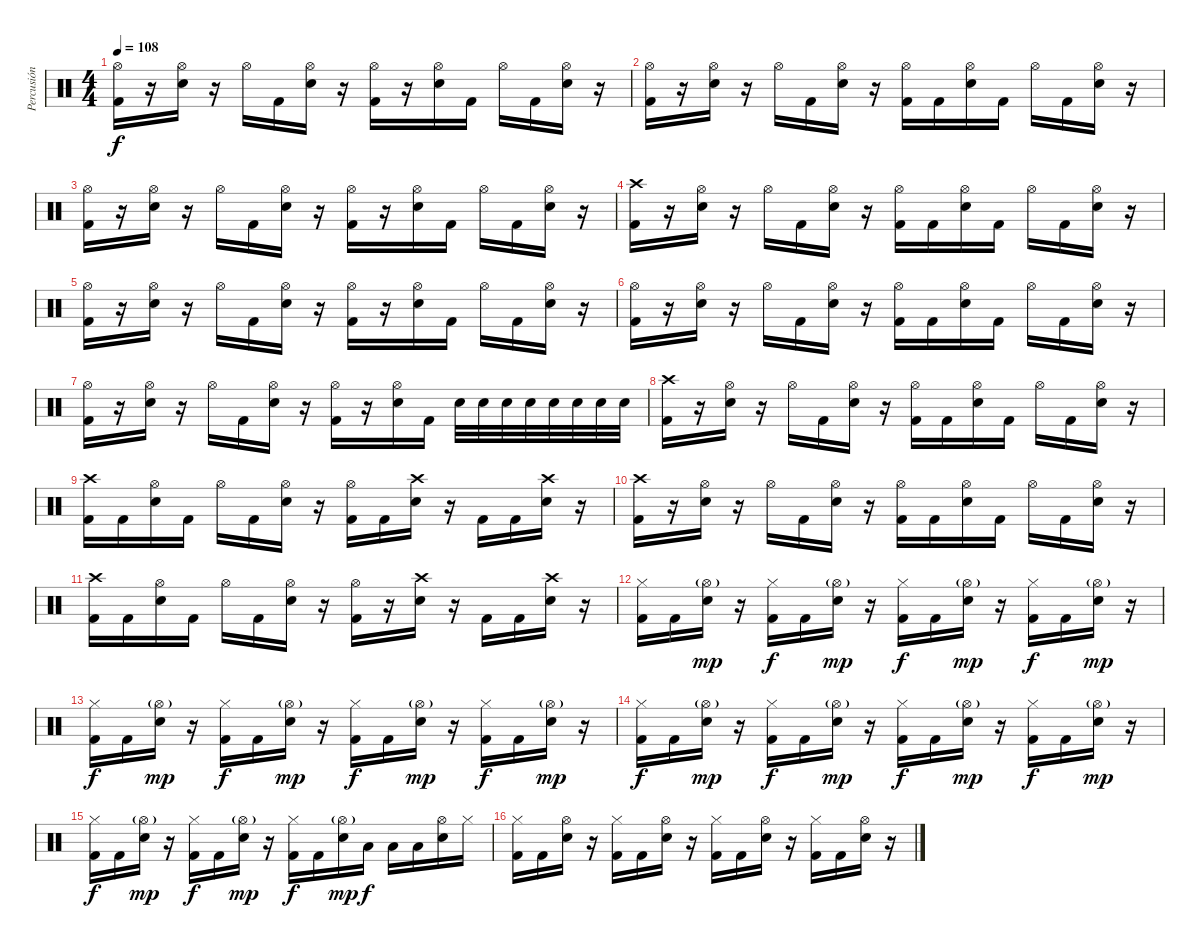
\track ("Percusión" "Percusión") {instrument percussion}
\staff {score}
\articulation defaults
\ts (4 4)
\tempo 108
\clef neutral
\ks c
("Hi-Hat (open)" "Kick (hit) 2").16{dy f} r.16 ("Hi-Hat (open)" "Electric Snare (hit)").16 r.16 "Hi-Hat (open)".16 "Kick (hit) 2".16 ("Hi-Hat (open)" "Electric Snare (hit)").16 r.16 ("Hi-Hat (open)" "Kick (hit) 2").16 r.16 ("Hi-Hat (open)" "Electric Snare (hit)").16 "Kick (hit) 2".16 "Hi-Hat (open)".16 "Kick (hit) 2".16 ("Hi-Hat (open)" "Electric Snare (hit)").16 r.16 |
("Hi-Hat (open)" "Kick (hit) 2").16 r.16 ("Hi-Hat (open)" "Electric Snare (hit)").16 r.16 "Hi-Hat (open)".16 "Kick (hit) 2".16 ("Hi-Hat (open)" "Electric Snare (hit)").16 r.16 ("Hi-Hat (open)" "Kick (hit) 2").16 "Kick (hit) 2".16 ("Hi-Hat (open)" "Electric Snare (hit)").16 "Kick (hit) 2".16 "Hi-Hat (open)".16 "Kick (hit) 2".16 ("Hi-Hat (open)" "Electric Snare (hit)").16 r.16 |
("Hi-Hat (open)" "Kick (hit) 2").16 r.16 ("Hi-Hat (open)" "Electric Snare (hit)").16 r.16 "Hi-Hat (open)".16 "Kick (hit) 2".16 ("Hi-Hat (open)" "Electric Snare (hit)").16 r.16 ("Hi-Hat (open)" "Kick (hit) 2").16 r.16 ("Hi-Hat (open)" "Electric Snare (hit)").16 "Kick (hit) 2".16 "Hi-Hat (open)".16 "Kick (hit) 2".16 ("Hi-Hat (open)" "Electric Snare (hit)").16 r.16 |
("Crash high (hit)" "Kick (hit) 2").16 r.16 ("Hi-Hat (open)" "Electric Snare (hit)").16 r.16 "Hi-Hat (open)".16 "Kick (hit) 2".16 ("Hi-Hat (open)" "Electric Snare (hit)").16 r.16 ("Hi-Hat (open)" "Kick (hit) 2").16 "Kick (hit) 2".16 ("Hi-Hat (open)" "Electric Snare (hit)").16 "Kick (hit) 2".16 "Hi-Hat (open)".16 "Kick (hit) 2".16 ("Hi-Hat (open)" "Electric Snare (hit)").16 r.16 |
("Hi-Hat (open)" "Kick (hit) 2").16 r.16 ("Hi-Hat (open)" "Electric Snare (hit)").16 r.16 "Hi-Hat (open)".16 "Kick (hit) 2".16 ("Hi-Hat (open)" "Electric Snare (hit)").16 r.16 ("Hi-Hat (open)" "Kick (hit) 2").16 r.16 ("Hi-Hat (open)" "Electric Snare (hit)").16 "Kick (hit) 2".16 "Hi-Hat (open)".16 "Kick (hit) 2".16 ("Hi-Hat (open)" "Electric Snare (hit)").16 r.16 |
("Hi-Hat (open)" "Kick (hit) 2").16 r.16 ("Hi-Hat (open)" "Electric Snare (hit)").16 r.16 "Hi-Hat (open)".16 "Kick (hit) 2".16 ("Hi-Hat (open)" "Electric Snare (hit)").16 r.16 ("Hi-Hat (open)" "Kick (hit) 2").16 "Kick (hit) 2".16 ("Hi-Hat (open)" "Electric Snare (hit)").16 "Kick (hit) 2".16 "Hi-Hat (open)".16 "Kick (hit) 2".16 ("Hi-Hat (open)" "Electric Snare (hit)").16 r.16 |
("Hi-Hat (open)" "Kick (hit) 2").16 r.16 ("Hi-Hat (open)" "Electric Snare (hit)").16 r.16 "Hi-Hat (open)".16 "Kick (hit) 2".16 ("Hi-Hat (open)" "Electric Snare (hit)").16 r.16 ("Hi-Hat (open)" "Kick (hit) 2").16 r.16 ("Hi-Hat (open)" "Electric Snare (hit)").16 "Kick (hit) 2".16 "Electric Snare (hit)".32 "Electric Snare (hit)".32 "Electric Snare (hit)".32 "Electric Snare (hit)".32 "Electric Snare (hit)".32 "Electric Snare (hit)".32 "Electric Snare (hit)".32 "Electric Snare (hit)".32 |
("Crash high (hit)" "Kick (hit) 2").16 r.16 ("Hi-Hat (open)" "Electric Snare (hit)").16 r.16 "Hi-Hat (open)".16 "Kick (hit) 2".16 ("Hi-Hat (open)" "Electric Snare (hit)").16 r.16 ("Hi-Hat (open)" "Kick (hit) 2").16 "Kick (hit) 2".16 ("Hi-Hat (open)" "Electric Snare (hit)").16 "Kick (hit) 2".16 "Hi-Hat (open)".16 "Kick (hit) 2".16 ("Hi-Hat (open)" "Electric Snare (hit)").16 r.16 |
("Crash high (hit)" "Kick (hit) 2").16 "Kick (hit) 2".16 ("Hi-Hat (open)" "Electric Snare (hit)").16 "Kick (hit) 2".16 "Hi-Hat (open)".16 "Kick (hit) 2".16 ("Hi-Hat (open)" "Electric Snare (hit)").16 r.16 ("Hi-Hat (open)" "Kick (hit) 2").16 "Kick (hit) 2".16 ("Crash high (hit)" "Electric Snare (hit)").16 r.16 "Kick (hit) 2".16 "Kick (hit) 2".16 ("Crash high (hit)" "Electric Snare (hit)").16 r.16 |
("Crash high (hit)" "Kick (hit) 2").16 r.16 ("Hi-Hat (open)" "Electric Snare (hit)").16 r.16 "Hi-Hat (open)".16 "Kick (hit) 2".16 ("Hi-Hat (open)" "Electric Snare (hit)").16 r.16 ("Hi-Hat (open)" "Kick (hit) 2").16 "Kick (hit) 2".16 ("Hi-Hat (open)" "Electric Snare (hit)").16 "Kick (hit) 2".16 "Hi-Hat (open)".16 "Kick (hit) 2".16 ("Hi-Hat (open)" "Electric Snare (hit)").16 r.16 |
("Crash high (hit)" "Kick (hit) 2").16 "Kick (hit) 2".16 ("Hi-Hat (open)" "Electric Snare (hit)").16 "Kick (hit) 2".16 "Hi-Hat (open)".16 "Kick (hit) 2".16 ("Hi-Hat (open)" "Electric Snare (hit)").16 r.16 ("Hi-Hat (open)" "Kick (hit) 2").16 r.16 ("Crash high (hit)" "Electric Snare (hit)").16 r.16 "Kick (hit) 2".16 "Kick (hit) 2".16 ("Crash high (hit)" "Electric Snare (hit)").16 r.16 |
("Hi-Hat (closed)" "Kick (hit) 2").16 "Kick (hit) 2".16 ("Hi-Hat (open)"{g} "Electric Snare (hit)").16{dy mp} r.16 ("Hi-Hat (closed)" "Kick (hit) 2").16{dy f} "Kick (hit) 2".16 ("Hi-Hat (open)"{g} "Electric Snare (hit)").16{dy mp} r.16 ("Hi-Hat (closed)" "Kick (hit) 2").16{dy f} "Kick (hit) 2".16 ("Hi-Hat (open)"{g} "Electric Snare (hit)").16{dy mp} r.16 ("Hi-Hat (closed)" "Kick (hit) 2").16{dy f} "Kick (hit) 2".16 ("Hi-Hat (open)"{g} "Electric Snare (hit)").16{dy mp} r.16 |
("Hi-Hat (closed)" "Kick (hit) 2").16{dy f} "Kick (hit) 2".16 ("Hi-Hat (open)"{g} "Electric Snare (hit)").16{dy mp} r.16 ("Hi-Hat (closed)" "Kick (hit) 2").16{dy f} "Kick (hit) 2".16 ("Hi-Hat (open)"{g} "Electric Snare (hit)").16{dy mp} r.16 ("Hi-Hat (closed)" "Kick (hit) 2").16{dy f} "Kick (hit) 2".16 ("Hi-Hat (open)"{g} "Electric Snare (hit)").16{dy mp} r.16 ("Hi-Hat (closed)" "Kick (hit) 2").16{dy f} "Kick (hit) 2".16 ("Hi-Hat (open)"{g} "Electric Snare (hit)").16{dy mp} r.16 |
("Hi-Hat (closed)" "Kick (hit) 2").16{dy f} "Kick (hit) 2".16 ("Hi-Hat (open)"{g} "Electric Snare (hit)").16{dy mp} r.16 ("Hi-Hat (closed)" "Kick (hit) 2").16{dy f} "Kick (hit) 2".16 ("Hi-Hat (open)"{g} "Electric Snare (hit)").16{dy mp} r.16 ("Hi-Hat (closed)" "Kick (hit) 2").16{dy f} "Kick (hit) 2".16 ("Hi-Hat (open)"{g} "Electric Snare (hit)").16{dy mp} r.16 ("Hi-Hat (closed)" "Kick (hit) 2").16{dy f} "Kick (hit) 2".16 ("Hi-Hat (open)"{g} "Electric Snare (hit)").16{dy mp} r.16 |
("Hi-Hat (closed)" "Kick (hit) 2").16{dy f} "Kick (hit) 2".16 ("Hi-Hat (open)"{g} "Electric Snare (hit)").16{dy mp} r.16 ("Hi-Hat (closed)" "Kick (hit) 2").16{dy f} "Kick (hit) 2".16 ("Hi-Hat (open)"{g} "Electric Snare (hit)").16{dy mp} r.16 ("Hi-Hat (closed)" "Kick (hit) 2").16{dy f} "Kick (hit) 2".16 ("Hi-Hat (open)"{g} "Electric Snare (hit)").16{dy mp} "Low Tom (hit)".16{dy f} "Low Tom (hit)".16 "Low Tom (hit)".16 ("Hi-Hat (open)" "Electric Snare (hit)").16 "Hi-Hat (closed)".16 |
("Hi-Hat (closed)" "Kick (hit) 2").16 "Kick (hit) 2".16 ("Hi-Hat (open)" "Electric Snare (hit)").16 r.16 ("Hi-Hat (closed)" "Kick (hit) 2").16 "Kick (hit) 2".16 ("Hi-Hat (open)" "Electric Snare (hit)").16 r.16 ("Hi-Hat (closed)" "Kick (hit) 2").16 "Kick (hit) 2".16 ("Hi-Hat (open)" "Electric Snare (hit)").16 r.16 ("Hi-Hat (closed)" "Kick (hit) 2").16 "Kick (hit) 2".16 ("Hi-Hat (open)" "Electric Snare (hit)").16 r.16
